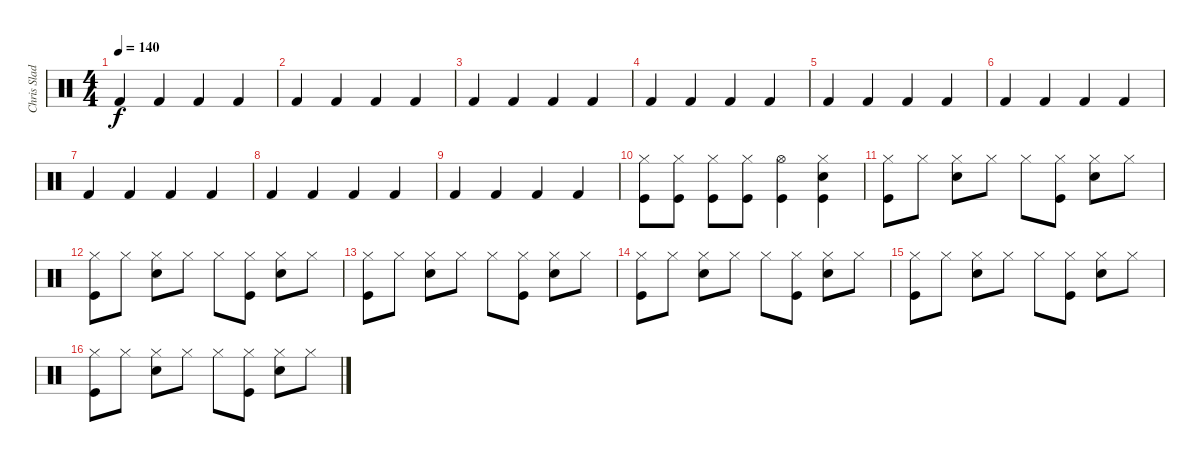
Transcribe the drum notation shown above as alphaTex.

\track ("Chris Slade" "Chris Slad") {instrument percussion}
\staff {score}
\articulation defaults
\ts (4 4)
\tempo 140
\clef neutral
\ks c "Kick (hit) 2".4{dy f} "Kick (hit) 2".4 "Kick (hit) 2".4 "Kick (hit) 2".4
|
"Kick (hit) 2".4 "Kick (hit) 2".4 "Kick (hit) 2".4 "Kick (hit) 2".4 |
"Kick (hit) 2".4 "Kick (hit) 2".4 "Kick (hit) 2".4 "Kick (hit) 2".4 |
"Kick (hit) 2".4 "Kick (hit) 2".4 "Kick (hit) 2".4 "Kick (hit) 2".4 |
"Kick (hit) 2".4 "Kick (hit) 2".4 "Kick (hit) 2".4 "Kick (hit) 2".4 |
"Kick (hit) 2".4 "Kick (hit) 2".4 "Kick (hit) 2".4 "Kick (hit) 2".4 |
"Kick (hit) 2".4 "Kick (hit) 2".4 "Kick (hit) 2".4 "Kick (hit) 2".4 |
"Kick (hit) 2".4 "Kick (hit) 2".4 "Kick (hit) 2".4 "Kick (hit) 2".4 |
"Kick (hit) 2".4 "Kick (hit) 2".4 "Kick (hit) 2".4 "Kick (hit) 2".4 |
("Hi-Hat (closed)" "Kick (hit)").8 ("Hi-Hat (closed)" "Kick (hit)").8 ("Hi-Hat (closed)" "Kick (hit)").8 ("Hi-Hat (closed)" "Kick (hit)").8 ("Hi-Hat (open)" "Kick (hit)").4 ("Hi-Hat (closed)" "Snare (hit) 2" "Kick (hit)").4 |
("Hi-Hat (closed)" "Kick (hit)").8 "Hi-Hat (closed)".8 ("Hi-Hat (closed)" "Snare (hit) 2").8 "Hi-Hat (closed)".8 "Hi-Hat (closed)".8 ("Hi-Hat (closed)" "Kick (hit)").8 ("Hi-Hat (closed)" "Snare (hit) 2").8 "Hi-Hat (closed)".8 |
("Hi-Hat (closed)" "Kick (hit)").8 "Hi-Hat (closed)".8 ("Hi-Hat (closed)" "Snare (hit) 2").8 "Hi-Hat (closed)".8 "Hi-Hat (closed)".8 ("Hi-Hat (closed)" "Kick (hit)").8 ("Hi-Hat (closed)" "Snare (hit) 2").8 "Hi-Hat (closed)".8 |
("Hi-Hat (closed)" "Kick (hit)").8 "Hi-Hat (closed)".8 ("Hi-Hat (closed)" "Snare (hit) 2").8 "Hi-Hat (closed)".8 "Hi-Hat (closed)".8 ("Hi-Hat (closed)" "Kick (hit)").8 ("Hi-Hat (closed)" "Snare (hit) 2").8 "Hi-Hat (closed)".8 |
("Hi-Hat (closed)" "Kick (hit)").8 "Hi-Hat (closed)".8 ("Hi-Hat (closed)" "Snare (hit) 2").8 "Hi-Hat (closed)".8 "Hi-Hat (closed)".8 ("Hi-Hat (closed)" "Kick (hit)").8 ("Hi-Hat (closed)" "Snare (hit) 2").8 "Hi-Hat (closed)".8 |
("Hi-Hat (closed)" "Kick (hit)").8 "Hi-Hat (closed)".8 ("Hi-Hat (closed)" "Snare (hit) 2").8 "Hi-Hat (closed)".8 "Hi-Hat (closed)".8 ("Hi-Hat (closed)" "Kick (hit)").8 ("Hi-Hat (closed)" "Snare (hit) 2").8 "Hi-Hat (closed)".8 |
("Hi-Hat (closed)" "Kick (hit)").8 "Hi-Hat (closed)".8 ("Hi-Hat (closed)" "Snare (hit) 2").8 "Hi-Hat (closed)".8 "Hi-Hat (closed)".8 ("Hi-Hat (closed)" "Kick (hit)").8 ("Hi-Hat (closed)" "Snare (hit) 2").8 "Hi-Hat (closed)".8
